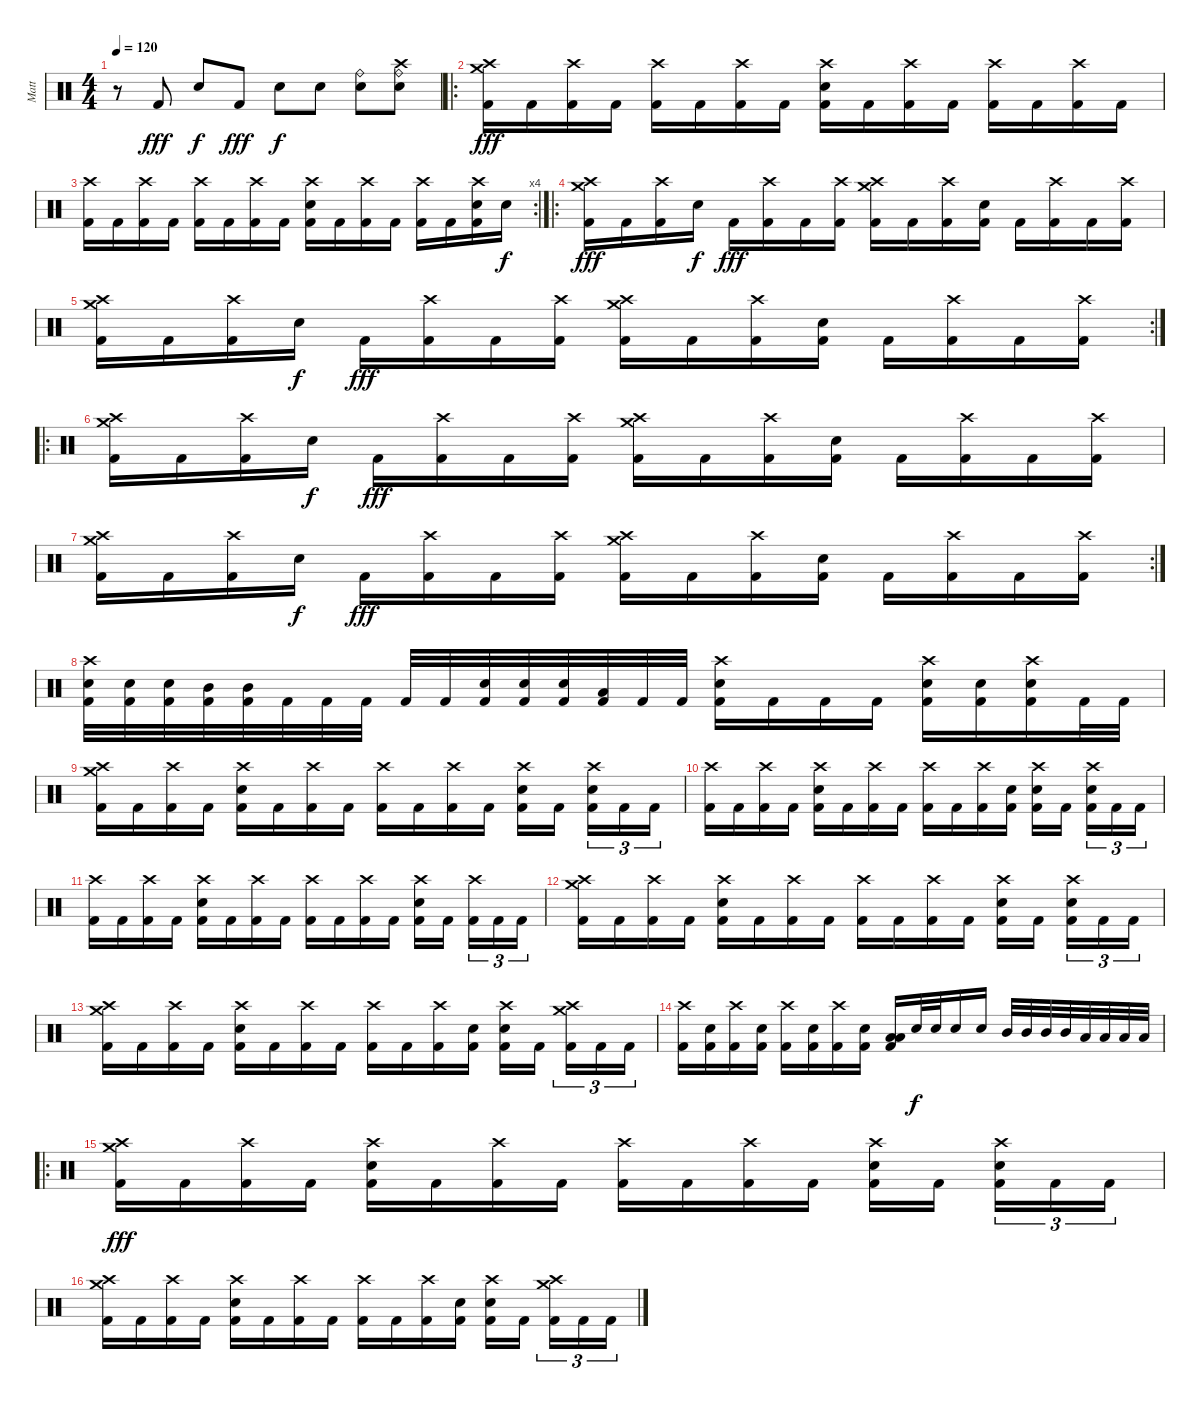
\track ("Matt" "Matt") {instrument percussion}
\staff {score}
\articulation defaults
\ts (4 4)
\tempo 120
\clef neutral
\ks c
r.8{dy fff} "Kick (hit) 2".8 "Electric Snare (hit)".8{dy f} "Kick (hit) 2".8{dy fff} "Electric Snare (hit)".8{dy f} "Electric Snare (hit)".8 ("Ride (bell)" "Electric Snare (hit)").8 ("Crash high (hit)" "Ride (bell)" "Electric Snare (hit)").8 |
\ro
("Crash high (hit)" "Crash medium (hit)" "Kick (hit) 2").16{dy fff} "Kick (hit) 2".16 ("Crash high (hit)" "Kick (hit) 2").16 "Kick (hit) 2".16 ("Crash high (hit)" "Kick (hit) 2").16 "Kick (hit) 2".16 ("Crash high (hit)" "Kick (hit) 2").16 "Kick (hit) 2".16 ("Crash high (hit)" "Electric Snare (hit)" "Kick (hit) 2").16 "Kick (hit) 2".16 ("Crash high (hit)" "Kick (hit) 2").16 "Kick (hit) 2".16 ("Crash high (hit)" "Kick (hit) 2").16 "Kick (hit) 2".16 ("Crash high (hit)" "Kick (hit) 2").16 "Kick (hit) 2".16 |
\rc 4
("Crash high (hit)" "Kick (hit) 2").16 "Kick (hit) 2".16 ("Crash high (hit)" "Kick (hit) 2").16 "Kick (hit) 2".16 ("Crash high (hit)" "Kick (hit) 2").16 "Kick (hit) 2".16 ("Crash high (hit)" "Kick (hit) 2").16 "Kick (hit) 2".16 ("Crash high (hit)" "Electric Snare (hit)" "Kick (hit) 2").16 "Kick (hit) 2".16 ("Crash high (hit)" "Kick (hit) 2").16 "Kick (hit) 2".16 ("Crash high (hit)" "Kick (hit) 2").16 "Kick (hit) 2".16 ("Crash high (hit)" "Electric Snare (hit)" "Kick (hit) 2").16 "Electric Snare (hit)".16{dy f} |
\ro
("Crash high (hit)" "Crash medium (hit)" "Kick (hit) 2").16{dy fff} "Kick (hit) 2".16 ("Crash high (hit)" "Kick (hit) 2").16 "Electric Snare (hit)".16{dy f} "Kick (hit) 2".16{dy fff} ("Crash high (hit)" "Kick (hit) 2").16 "Kick (hit) 2".16 ("Crash high (hit)" "Kick (hit) 2").16 ("Crash high (hit)" "Crash medium (hit)" "Kick (hit) 2").16 "Kick (hit) 2".16 ("Crash high (hit)" "Kick (hit) 2").16 ("Electric Snare (hit)" "Kick (hit) 2").16 "Kick (hit) 2".16 ("Crash high (hit)" "Kick (hit) 2").16 "Kick (hit) 2".16 ("Crash high (hit)" "Kick (hit) 2").16 |
\rc 2
("Crash high (hit)" "Crash medium (hit)" "Kick (hit) 2").16 "Kick (hit) 2".16 ("Crash high (hit)" "Kick (hit) 2").16 "Electric Snare (hit)".16{dy f} "Kick (hit) 2".16{dy fff} ("Crash high (hit)" "Kick (hit) 2").16 "Kick (hit) 2".16 ("Crash high (hit)" "Kick (hit) 2").16 ("Crash high (hit)" "Crash medium (hit)" "Kick (hit) 2").16 "Kick (hit) 2".16 ("Crash high (hit)" "Kick (hit) 2").16 ("Electric Snare (hit)" "Kick (hit) 2").16 "Kick (hit) 2".16 ("Crash high (hit)" "Kick (hit) 2").16 "Kick (hit) 2".16 ("Crash high (hit)" "Kick (hit) 2").16 |
\ro
("Crash high (hit)" "Crash medium (hit)" "Kick (hit) 2").16 "Kick (hit) 2".16 ("Crash high (hit)" "Kick (hit) 2").16 "Electric Snare (hit)".16{dy f} "Kick (hit) 2".16{dy fff} ("Crash high (hit)" "Kick (hit) 2").16 "Kick (hit) 2".16 ("Crash high (hit)" "Kick (hit) 2").16 ("Crash high (hit)" "Crash medium (hit)" "Kick (hit) 2").16 "Kick (hit) 2".16 ("Crash high (hit)" "Kick (hit) 2").16 ("Electric Snare (hit)" "Kick (hit) 2").16 "Kick (hit) 2".16 ("Crash high (hit)" "Kick (hit) 2").16 "Kick (hit) 2".16 ("Crash high (hit)" "Kick (hit) 2").16 |
\rc 2
("Crash high (hit)" "Crash medium (hit)" "Kick (hit) 2").16 "Kick (hit) 2".16 ("Crash high (hit)" "Kick (hit) 2").16 "Electric Snare (hit)".16{dy f} "Kick (hit) 2".16{dy fff} ("Crash high (hit)" "Kick (hit) 2").16 "Kick (hit) 2".16 ("Crash high (hit)" "Kick (hit) 2").16 ("Crash high (hit)" "Crash medium (hit)" "Kick (hit) 2").16 "Kick (hit) 2".16 ("Crash high (hit)" "Kick (hit) 2").16 ("Electric Snare (hit)" "Kick (hit) 2").16 "Kick (hit) 2".16 ("Crash high (hit)" "Kick (hit) 2").16 "Kick (hit) 2".16 ("Crash high (hit)" "Kick (hit) 2").16 |
("Crash high (hit)" "Electric Snare (hit)" "Kick (hit) 2").32 ("Electric Snare (hit)" "Kick (hit) 2").32 ("Electric Snare (hit)" "Kick (hit) 2").32 ("Mid Tom (hit)" "Kick (hit) 2").32 ("Mid Tom (hit)" "Kick (hit) 2").32 "Kick (hit) 2".32 "Kick (hit) 2".32 "Kick (hit) 2".32 "Kick (hit) 2".32 "Kick (hit) 2".32 ("Electric Snare (hit)" "Kick (hit) 2").32 ("Electric Snare (hit)" "Kick (hit) 2").32 ("Electric Snare (hit)" "Kick (hit) 2").32 ("Low Tom (hit)" "Kick (hit) 2").32 "Kick (hit) 2".32 "Kick (hit) 2".32 ("Crash high (hit)" "Electric Snare (hit)" "Kick (hit) 2").16 "Kick (hit) 2".16 "Kick (hit) 2".16 "Kick (hit) 2".16 ("Crash high (hit)" "Electric Snare (hit)" "Kick (hit) 2").16 ("Electric Snare (hit)" "Kick (hit) 2").16 ("Crash high (hit)" "Electric Snare (hit)" "Kick (hit) 2").16 "Kick (hit) 2".32 "Kick (hit) 2".32 |
("Crash high (hit)" "Crash medium (hit)" "Kick (hit) 2").16 "Kick (hit) 2".16 ("Crash high (hit)" "Kick (hit) 2").16 "Kick (hit) 2".16 ("Crash high (hit)" "Electric Snare (hit)" "Kick (hit) 2").16 "Kick (hit) 2".16 ("Crash high (hit)" "Kick (hit) 2").16 "Kick (hit) 2".16 ("Crash high (hit)" "Kick (hit) 2").16 "Kick (hit) 2".16 ("Crash high (hit)" "Kick (hit) 2").16 "Kick (hit) 2".16 ("Crash high (hit)" "Electric Snare (hit)" "Kick (hit) 2").16 "Kick (hit) 2".16 ("Crash high (hit)" "Electric Snare (hit)" "Kick (hit) 2").16{tu (3 2)} "Kick (hit) 2".16{tu (3 2)} "Kick (hit) 2".16{tu (3 2)} |
("Crash high (hit)" "Kick (hit) 2").16 "Kick (hit) 2".16 ("Crash high (hit)" "Kick (hit) 2").16 "Kick (hit) 2".16 ("Crash high (hit)" "Electric Snare (hit)" "Kick (hit) 2").16 "Kick (hit) 2".16 ("Crash high (hit)" "Kick (hit) 2").16 "Kick (hit) 2".16 ("Crash high (hit)" "Kick (hit) 2").16 "Kick (hit) 2".16 ("Crash high (hit)" "Kick (hit) 2").16 ("Electric Snare (hit)" "Kick (hit) 2").16 ("Crash high (hit)" "Electric Snare (hit)" "Kick (hit) 2").16 "Kick (hit) 2".16 ("Crash high (hit)" "Electric Snare (hit)" "Kick (hit) 2").16{tu (3 2)} "Kick (hit) 2".16{tu (3 2)} "Kick (hit) 2".16{tu (3 2)} |
("Crash high (hit)" "Kick (hit) 2").16 "Kick (hit) 2".16 ("Crash high (hit)" "Kick (hit) 2").16 "Kick (hit) 2".16 ("Crash high (hit)" "Electric Snare (hit)" "Kick (hit) 2").16 "Kick (hit) 2".16 ("Crash high (hit)" "Kick (hit) 2").16 "Kick (hit) 2".16 ("Crash high (hit)" "Kick (hit) 2").16 "Kick (hit) 2".16 ("Crash high (hit)" "Kick (hit) 2").16 "Kick (hit) 2".16 ("Crash high (hit)" "Electric Snare (hit)" "Kick (hit) 2").16 "Kick (hit) 2".16 ("Crash high (hit)" "Kick (hit) 2").16{tu (3 2)} "Kick (hit) 2".16{tu (3 2)} "Kick (hit) 2".16{tu (3 2)} |
("Crash high (hit)" "Crash medium (hit)" "Kick (hit) 2").16 "Kick (hit) 2".16 ("Crash high (hit)" "Kick (hit) 2").16 "Kick (hit) 2".16 ("Crash high (hit)" "Electric Snare (hit)" "Kick (hit) 2").16 "Kick (hit) 2".16 ("Crash high (hit)" "Kick (hit) 2").16 "Kick (hit) 2".16 ("Crash high (hit)" "Kick (hit) 2").16 "Kick (hit) 2".16 ("Crash high (hit)" "Kick (hit) 2").16 "Kick (hit) 2".16 ("Crash high (hit)" "Electric Snare (hit)" "Kick (hit) 2").16 "Kick (hit) 2".16 ("Crash high (hit)" "Electric Snare (hit)" "Kick (hit) 2").16{tu (3 2)} "Kick (hit) 2".16{tu (3 2)} "Kick (hit) 2".16{tu (3 2)} |
("Crash high (hit)" "Crash medium (hit)" "Kick (hit) 2").16 "Kick (hit) 2".16 ("Crash high (hit)" "Kick (hit) 2").16 "Kick (hit) 2".16 ("Crash high (hit)" "Electric Snare (hit)" "Kick (hit) 2").16 "Kick (hit) 2".16 ("Crash high (hit)" "Kick (hit) 2").16 "Kick (hit) 2".16 ("Crash high (hit)" "Kick (hit) 2").16 "Kick (hit) 2".16 ("Crash high (hit)" "Kick (hit) 2").16 ("Electric Snare (hit)" "Kick (hit) 2").16 ("Crash high (hit)" "Electric Snare (hit)" "Kick (hit) 2").16 "Kick (hit) 2".16 ("Crash high (hit)" "Crash medium (hit)" "Kick (hit) 2").16{tu (3 2)} "Kick (hit) 2".16{tu (3 2)} "Kick (hit) 2".16{tu (3 2)} |
("Crash high (hit)" "Kick (hit) 2").16 ("Electric Snare (hit)" "Kick (hit) 2").16 ("Crash high (hit)" "Kick (hit) 2").16 ("Electric Snare (hit)" "Kick (hit) 2").16 ("Crash high (hit)" "Kick (hit) 2").16 ("Electric Snare (hit)" "Kick (hit) 2").16 ("Crash high (hit)" "Kick (hit) 2").16 ("Electric Snare (hit)" "Kick (hit) 2").16 ("Low Tom (hit)" "Low Tom (hit)" "Kick (hit) 2").16 "Electric Snare (hit)".32{dy f} "Electric Snare (hit)".32 "Electric Snare (hit)".16 "Electric Snare (hit)".16 "Mid Tom (hit)".32 "Mid Tom (hit)".32 "Mid Tom (hit)".32 "Mid Tom (hit)".32 "Low Tom (hit)".32 "Low Tom (hit)".32 "Low Tom (hit)".32 "Low Tom (hit)".32 |
\ro
("Crash high (hit)" "Crash medium (hit)" "Kick (hit) 2").16{dy fff} "Kick (hit) 2".16 ("Crash high (hit)" "Kick (hit) 2").16 "Kick (hit) 2".16 ("Crash high (hit)" "Electric Snare (hit)" "Kick (hit) 2").16 "Kick (hit) 2".16 ("Crash high (hit)" "Kick (hit) 2").16 "Kick (hit) 2".16 ("Crash high (hit)" "Kick (hit) 2").16 "Kick (hit) 2".16 ("Crash high (hit)" "Kick (hit) 2").16 "Kick (hit) 2".16 ("Crash high (hit)" "Electric Snare (hit)" "Kick (hit) 2").16 "Kick (hit) 2".16 ("Crash high (hit)" "Electric Snare (hit)" "Kick (hit) 2").16{tu (3 2)} "Kick (hit) 2".16{tu (3 2)} "Kick (hit) 2".16{tu (3 2)} |
("Crash high (hit)" "Crash medium (hit)" "Kick (hit) 2").16 "Kick (hit) 2".16 ("Crash high (hit)" "Kick (hit) 2").16 "Kick (hit) 2".16 ("Crash high (hit)" "Electric Snare (hit)" "Kick (hit) 2").16 "Kick (hit) 2".16 ("Crash high (hit)" "Kick (hit) 2").16 "Kick (hit) 2".16 ("Crash high (hit)" "Kick (hit) 2").16 "Kick (hit) 2".16 ("Crash high (hit)" "Kick (hit) 2").16 ("Electric Snare (hit)" "Kick (hit) 2").16 ("Crash high (hit)" "Electric Snare (hit)" "Kick (hit) 2").16 "Kick (hit) 2".16 ("Crash high (hit)" "Crash medium (hit)" "Kick (hit) 2").16{tu (3 2)} "Kick (hit) 2".16{tu (3 2)} "Kick (hit) 2".16{tu (3 2)}
